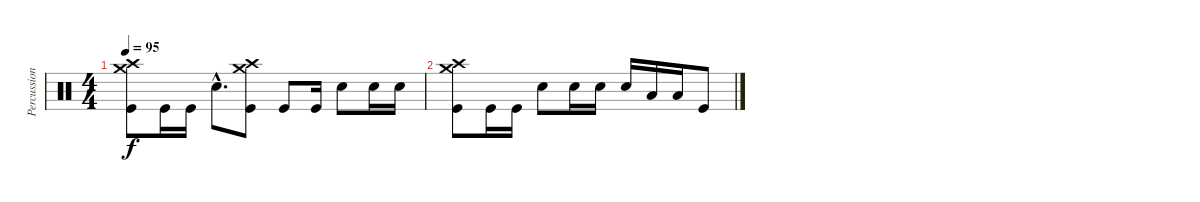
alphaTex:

\track ("Percussion" "Percussion") {instrument percussion}
\staff {score}
\articulation defaults
\ts (4 4)
\tempo 95
\clef neutral
\ks c
("Crash medium (hit)" "Crash high (hit)" "Kick (hit)").8{dy f} "Kick (hit)".16 "Kick (hit)".16 "Electric Snare (hit)"{hac}.8{d} ("Crash high (hit)" "Crash medium (hit)" "Kick (hit)").8 "Kick (hit)".8 "Kick (hit)".16 "Electric Snare (hit)".8 "Electric Snare (hit)".16 "Electric Snare (hit)".16 |
("Crash medium (hit)" "Crash high (hit)" "Kick (hit)").8 "Kick (hit)".16 "Kick (hit)".16 "Electric Snare (hit)".8 "Electric Snare (hit)".16 "Electric Snare (hit)".16 "Electric Snare (hit)".16 "Low Tom (hit)".16 "Low Tom (hit)".16 "Kick (hit)".8
